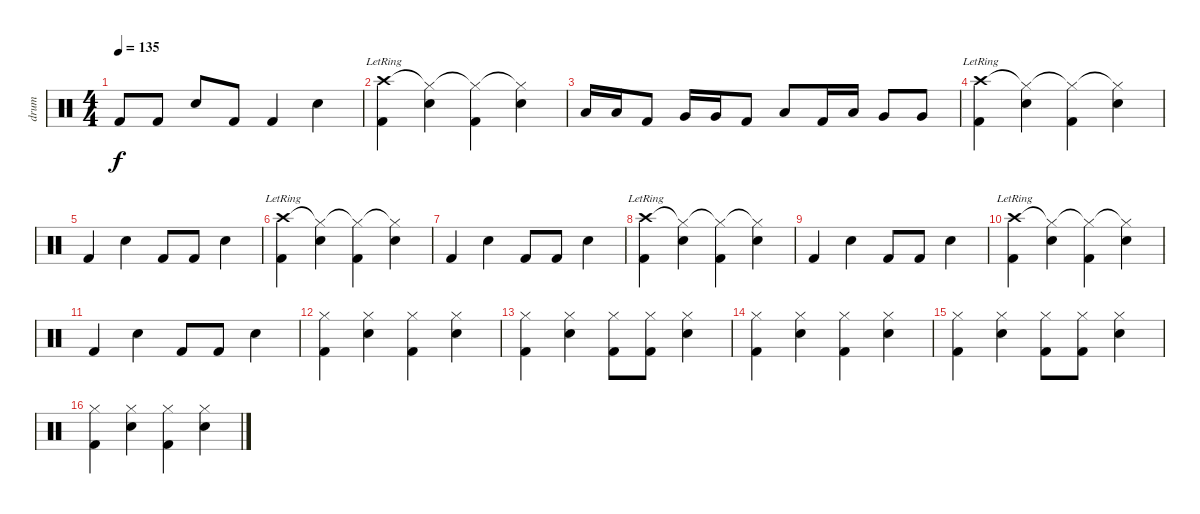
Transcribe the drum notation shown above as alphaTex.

\track ("drum" "drum") {instrument percussion}
\staff {score}
\articulation defaults
\ts (4 4)
\tempo 135
\clef neutral
\ks c "Kick (hit) 2".8{dy f} "Kick (hit) 2".8 "Snare (hit) 2".8 "Kick (hit) 2".8 "Kick (hit) 2".4 "Snare (hit) 2".4
|
("Crash high (hit)"{lr} "Kick (hit) 2").4 ("Hi-Hat (closed)"{t} "Snare (hit) 2").4 ("Hi-Hat (closed)"{t} "Kick (hit) 2").4 ("Hi-Hat (closed)"{t} "Snare (hit) 2").4 |
"Low Tom (hit)".16 "Low Tom (hit)".16 "Kick (hit) 2".8 "Very Low Tom (hit)".16 "Very Low Tom (hit)".16 "Kick (hit) 2".8 "Low Tom (hit)".8 "Kick (hit) 2".16 "Low Tom (hit)".16 "Very Low Tom (hit)".8 "Very Low Tom (hit)".8 |
("Crash high (hit)"{lr} "Kick (hit) 2").4 ("Hi-Hat (closed)"{t} "Snare (hit) 2").4 ("Hi-Hat (closed)"{t} "Kick (hit) 2").4 ("Hi-Hat (closed)"{t} "Snare (hit) 2").4 |
"Kick (hit) 2".4 "Snare (hit) 2".4 "Kick (hit) 2".8 "Kick (hit) 2".8 "Snare (hit) 2".4 |
("Crash high (hit)"{lr} "Kick (hit) 2").4 ("Hi-Hat (closed)"{t} "Snare (hit) 2").4 ("Hi-Hat (closed)"{t} "Kick (hit) 2").4 ("Hi-Hat (closed)"{t} "Snare (hit) 2").4 |
"Kick (hit) 2".4 "Snare (hit) 2".4 "Kick (hit) 2".8 "Kick (hit) 2".8 "Snare (hit) 2".4 |
("Crash high (hit)"{lr} "Kick (hit) 2").4 ("Hi-Hat (closed)"{t} "Snare (hit) 2").4 ("Hi-Hat (closed)"{t} "Kick (hit) 2").4 ("Hi-Hat (closed)"{t} "Snare (hit) 2").4 |
"Kick (hit) 2".4 "Snare (hit) 2".4 "Kick (hit) 2".8 "Kick (hit) 2".8 "Snare (hit) 2".4 |
("Crash high (hit)"{lr} "Kick (hit) 2").4 ("Hi-Hat (closed)"{t} "Snare (hit) 2").4 ("Hi-Hat (closed)"{t} "Kick (hit) 2").4 ("Hi-Hat (closed)"{t} "Snare (hit) 2").4 |
"Kick (hit) 2".4 "Snare (hit) 2".4 "Kick (hit) 2".8 "Kick (hit) 2".8 "Snare (hit) 2".4 |
("Hi-Hat (closed)" "Kick (hit) 2").4 ("Hi-Hat (closed)" "Snare (hit) 2").4 ("Hi-Hat (closed)" "Kick (hit) 2").4 ("Hi-Hat (closed)" "Snare (hit) 2").4 |
("Hi-Hat (closed)" "Kick (hit) 2").4 ("Hi-Hat (closed)" "Snare (hit) 2").4 ("Hi-Hat (closed)" "Kick (hit) 2").8 ("Hi-Hat (closed)" "Kick (hit) 2").8 ("Hi-Hat (closed)" "Snare (hit) 2").4 |
("Hi-Hat (closed)" "Kick (hit) 2").4 ("Hi-Hat (closed)" "Snare (hit) 2").4 ("Hi-Hat (closed)" "Kick (hit) 2").4 ("Hi-Hat (closed)" "Snare (hit) 2").4 |
("Hi-Hat (closed)" "Kick (hit) 2").4 ("Hi-Hat (closed)" "Snare (hit) 2").4 ("Hi-Hat (closed)" "Kick (hit) 2").8 ("Hi-Hat (closed)" "Kick (hit) 2").8 ("Hi-Hat (closed)" "Snare (hit) 2").4 |
("Hi-Hat (closed)" "Kick (hit) 2").4 ("Hi-Hat (closed)" "Snare (hit) 2").4 ("Hi-Hat (closed)" "Kick (hit) 2").4 ("Hi-Hat (closed)" "Snare (hit) 2").4
